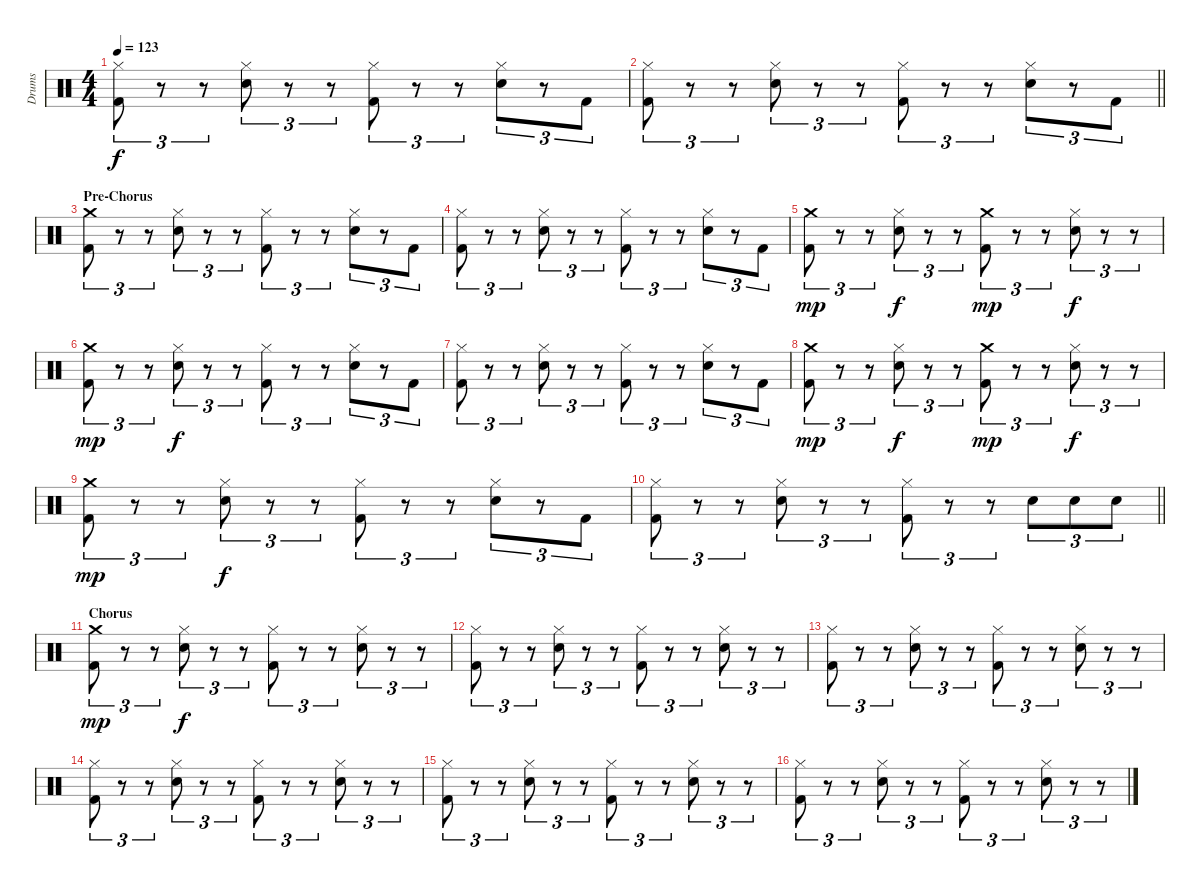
\track ("Drums" "Drums") {instrument percussion}
\staff {score}
\articulation defaults
\ts (4 4)
\tempo 123
\clef neutral
\ks c
("Hi-Hat (closed)" "Kick (hit) 2").8{tu (3 2) dy f} r.8{tu (3 2)} r.8{tu (3 2)} ("Hi-Hat (closed)" "Snare (hit) 2").8{tu (3 2)} r.8{tu (3 2)} r.8{tu (3 2)} ("Hi-Hat (closed)" "Kick (hit) 2").8{tu (3 2)} r.8{tu (3 2)} r.8{tu (3 2)} ("Hi-Hat (closed)" "Snare (hit) 2").8{tu (3 2)} r.8{tu (3 2)} "Kick (hit) 2".8{tu (3 2)} |
\barLineRight lightlight
("Hi-Hat (closed)" "Kick (hit) 2").8{tu (3 2)} r.8{tu (3 2)} r.8{tu (3 2)} ("Hi-Hat (closed)" "Snare (hit) 2").8{tu (3 2)} r.8{tu (3 2)} r.8{tu (3 2)} ("Hi-Hat (closed)" "Kick (hit) 2").8{tu (3 2)} r.8{tu (3 2)} r.8{tu (3 2)} ("Hi-Hat (closed)" "Snare (hit) 2").8{tu (3 2)} r.8{tu (3 2)} "Kick (hit) 2".8{tu (3 2)} |
\section ("" "Pre-Chorus")
("Crash medium (hit)" "Kick (hit) 2").8{tu (3 2)} r.8{tu (3 2)} r.8{tu (3 2)} ("Hi-Hat (closed)" "Snare (hit) 2").8{tu (3 2)} r.8{tu (3 2)} r.8{tu (3 2)} ("Hi-Hat (closed)" "Kick (hit) 2").8{tu (3 2)} r.8{tu (3 2)} r.8{tu (3 2)} ("Hi-Hat (closed)" "Snare (hit) 2").8{tu (3 2)} r.8{tu (3 2)} "Kick (hit) 2".8{tu (3 2)} |
("Hi-Hat (closed)" "Kick (hit) 2").8{tu (3 2)} r.8{tu (3 2)} r.8{tu (3 2)} ("Hi-Hat (closed)" "Snare (hit) 2").8{tu (3 2)} r.8{tu (3 2)} r.8{tu (3 2)} ("Hi-Hat (closed)" "Kick (hit) 2").8{tu (3 2)} r.8{tu (3 2)} r.8{tu (3 2)} ("Hi-Hat (closed)" "Snare (hit) 2").8{tu (3 2)} r.8{tu (3 2)} "Kick (hit) 2".8{tu (3 2)} |
("Crash medium (hit)" "Kick (hit) 2").8{tu (3 2) dy mp} r.8{tu (3 2)} r.8{tu (3 2)} ("Hi-Hat (closed)" "Snare (hit) 2").8{tu (3 2) dy f} r.8{tu (3 2)} r.8{tu (3 2)} ("Crash medium (hit)" "Kick (hit) 2").8{tu (3 2) dy mp} r.8{tu (3 2)} r.8{tu (3 2)} ("Hi-Hat (closed)" "Snare (hit) 2").8{tu (3 2) dy f} r.8{tu (3 2)} r.8{tu (3 2)} |
("Crash medium (hit)" "Kick (hit) 2").8{tu (3 2) dy mp} r.8{tu (3 2)} r.8{tu (3 2)} ("Hi-Hat (closed)" "Snare (hit) 2").8{tu (3 2) dy f} r.8{tu (3 2)} r.8{tu (3 2)} ("Hi-Hat (closed)" "Kick (hit) 2").8{tu (3 2)} r.8{tu (3 2)} r.8{tu (3 2)} ("Hi-Hat (closed)" "Snare (hit) 2").8{tu (3 2)} r.8{tu (3 2)} "Kick (hit) 2".8{tu (3 2)} |
("Hi-Hat (closed)" "Kick (hit) 2").8{tu (3 2)} r.8{tu (3 2)} r.8{tu (3 2)} ("Hi-Hat (closed)" "Snare (hit) 2").8{tu (3 2)} r.8{tu (3 2)} r.8{tu (3 2)} ("Hi-Hat (closed)" "Kick (hit) 2").8{tu (3 2)} r.8{tu (3 2)} r.8{tu (3 2)} ("Hi-Hat (closed)" "Snare (hit) 2").8{tu (3 2)} r.8{tu (3 2)} "Kick (hit) 2".8{tu (3 2)} |
("Crash medium (hit)" "Kick (hit) 2").8{tu (3 2) dy mp} r.8{tu (3 2)} r.8{tu (3 2)} ("Hi-Hat (closed)" "Snare (hit) 2").8{tu (3 2) dy f} r.8{tu (3 2)} r.8{tu (3 2)} ("Crash medium (hit)" "Kick (hit) 2").8{tu (3 2) dy mp} r.8{tu (3 2)} r.8{tu (3 2)} ("Hi-Hat (closed)" "Snare (hit) 2").8{tu (3 2) dy f} r.8{tu (3 2)} r.8{tu (3 2)} |
("Crash medium (hit)" "Kick (hit) 2").8{tu (3 2) dy mp} r.8{tu (3 2)} r.8{tu (3 2)} ("Hi-Hat (closed)" "Snare (hit) 2").8{tu (3 2) dy f} r.8{tu (3 2)} r.8{tu (3 2)} ("Hi-Hat (closed)" "Kick (hit) 2").8{tu (3 2)} r.8{tu (3 2)} r.8{tu (3 2)} ("Hi-Hat (closed)" "Snare (hit) 2").8{tu (3 2)} r.8{tu (3 2)} "Kick (hit) 2".8{tu (3 2)} |
\barLineRight lightlight
("Hi-Hat (closed)" "Kick (hit) 2").8{tu (3 2)} r.8{tu (3 2)} r.8{tu (3 2)} ("Hi-Hat (closed)" "Snare (hit) 2").8{tu (3 2)} r.8{tu (3 2)} r.8{tu (3 2)} ("Hi-Hat (closed)" "Kick (hit) 2").8{tu (3 2)} r.8{tu (3 2)} r.8{tu (3 2)} "Snare (hit) 2".8{tu (3 2)} "Snare (hit) 2".8{tu (3 2)} "Snare (hit) 2".8{tu (3 2)} |
\section ("" "Chorus")
("Crash medium (hit)" "Kick (hit) 2").8{tu (3 2) dy mp} r.8{tu (3 2)} r.8{tu (3 2)} ("Hi-Hat (closed)" "Snare (hit) 2").8{tu (3 2) dy f} r.8{tu (3 2)} r.8{tu (3 2)} ("Hi-Hat (closed)" "Kick (hit) 2").8{tu (3 2)} r.8{tu (3 2)} r.8{tu (3 2)} ("Hi-Hat (closed)" "Snare (hit) 2").8{tu (3 2)} r.8{tu (3 2)} r.8{tu (3 2)} |
("Hi-Hat (closed)" "Kick (hit) 2").8{tu (3 2)} r.8{tu (3 2)} r.8{tu (3 2)} ("Hi-Hat (closed)" "Snare (hit) 2").8{tu (3 2)} r.8{tu (3 2)} r.8{tu (3 2)} ("Hi-Hat (closed)" "Kick (hit) 2").8{tu (3 2)} r.8{tu (3 2)} r.8{tu (3 2)} ("Hi-Hat (closed)" "Snare (hit) 2").8{tu (3 2)} r.8{tu (3 2)} r.8{tu (3 2)} |
("Hi-Hat (closed)" "Kick (hit) 2").8{tu (3 2)} r.8{tu (3 2)} r.8{tu (3 2)} ("Hi-Hat (closed)" "Snare (hit) 2").8{tu (3 2)} r.8{tu (3 2)} r.8{tu (3 2)} ("Hi-Hat (closed)" "Kick (hit) 2").8{tu (3 2)} r.8{tu (3 2)} r.8{tu (3 2)} ("Hi-Hat (closed)" "Snare (hit) 2").8{tu (3 2)} r.8{tu (3 2)} r.8{tu (3 2)} |
("Hi-Hat (closed)" "Kick (hit) 2").8{tu (3 2)} r.8{tu (3 2)} r.8{tu (3 2)} ("Hi-Hat (closed)" "Snare (hit) 2").8{tu (3 2)} r.8{tu (3 2)} r.8{tu (3 2)} ("Hi-Hat (closed)" "Kick (hit) 2").8{tu (3 2)} r.8{tu (3 2)} r.8{tu (3 2)} ("Hi-Hat (closed)" "Snare (hit) 2").8{tu (3 2)} r.8{tu (3 2)} r.8{tu (3 2)} |
("Hi-Hat (closed)" "Kick (hit) 2").8{tu (3 2)} r.8{tu (3 2)} r.8{tu (3 2)} ("Hi-Hat (closed)" "Snare (hit) 2").8{tu (3 2)} r.8{tu (3 2)} r.8{tu (3 2)} ("Hi-Hat (closed)" "Kick (hit) 2").8{tu (3 2)} r.8{tu (3 2)} r.8{tu (3 2)} ("Hi-Hat (closed)" "Snare (hit) 2").8{tu (3 2)} r.8{tu (3 2)} r.8{tu (3 2)} |
("Hi-Hat (closed)" "Kick (hit) 2").8{tu (3 2)} r.8{tu (3 2)} r.8{tu (3 2)} ("Hi-Hat (closed)" "Snare (hit) 2").8{tu (3 2)} r.8{tu (3 2)} r.8{tu (3 2)} ("Hi-Hat (closed)" "Kick (hit) 2").8{tu (3 2)} r.8{tu (3 2)} r.8{tu (3 2)} ("Hi-Hat (closed)" "Snare (hit) 2").8{tu (3 2)} r.8{tu (3 2)} r.8{tu (3 2)}
